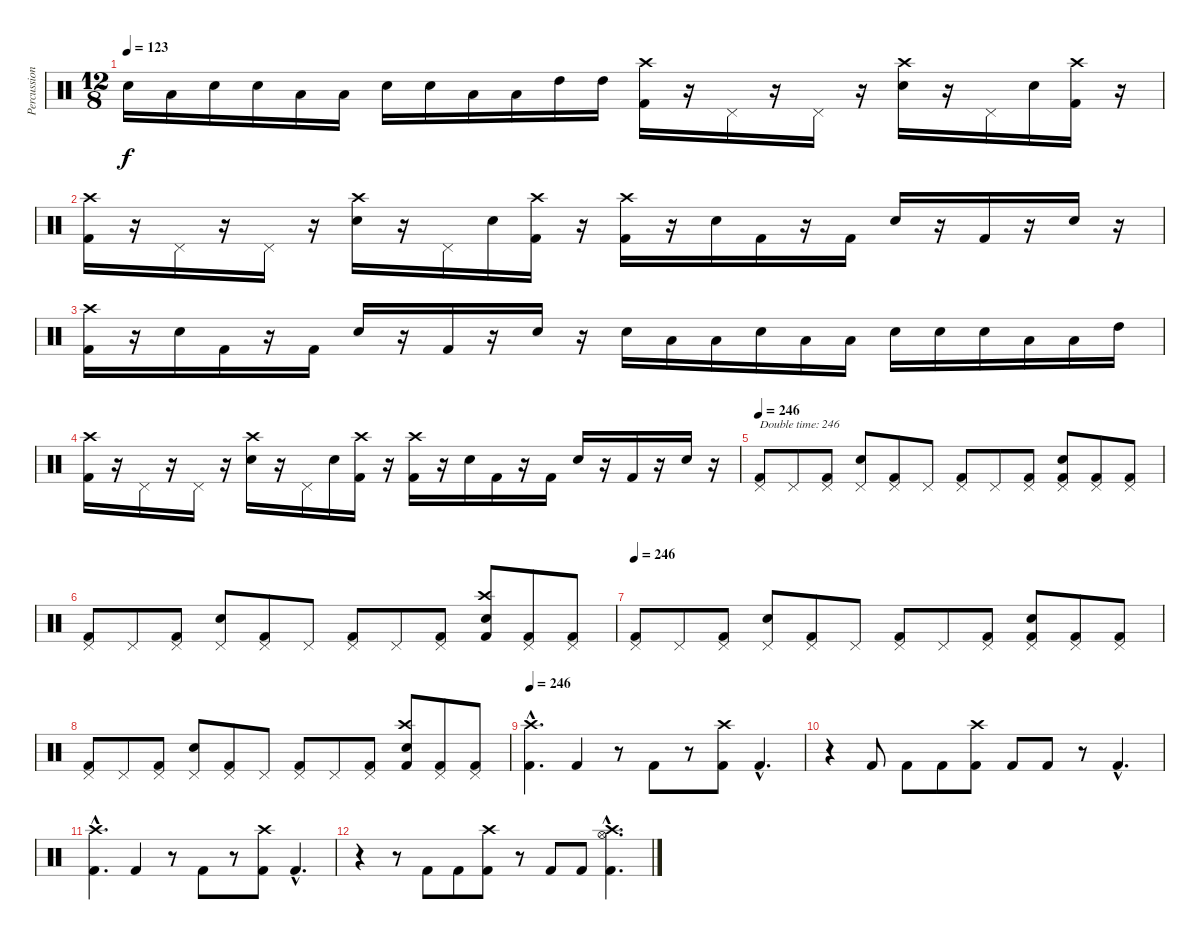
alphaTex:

\track ("Percussion" "Percussion") {instrument percussion}
\staff {score}
\articulation defaults
\ts (12 8)
\tempo 123
\clef neutral
\ks c "Snare (hit) 2".16{dy f} "Low Tom (hit)".16 "Snare (hit) 2".16 "Snare (hit) 2".16 "Low Tom (hit)".16 "Low Tom (hit)".16 "Snare (hit) 2".16 "Snare (hit) 2".16 "Low Tom (hit)".16 "Low Tom (hit)".16 "High Tom (hit)".16 "High Tom (hit)".16
("Crash high (hit)" "Kick (hit) 2").16 r.16 "Pedal Hi-Hat (hit)".16 r.16 "Pedal Hi-Hat (hit)".16 r.16 ("Snare (hit) 2" "Crash high (hit)").16 r.16 "Pedal Hi-Hat (hit)".16 "Snare (hit) 2".16 ("Crash high (hit)" "Kick (hit) 2").16 r.16 |
("Crash high (hit)" "Kick (hit) 2").16 r.16 "Pedal Hi-Hat (hit)".16 r.16 "Pedal Hi-Hat (hit)".16 r.16 ("Snare (hit) 2" "Crash high (hit)").16 r.16 "Pedal Hi-Hat (hit)".16 "Snare (hit) 2".16 ("Crash high (hit)" "Kick (hit) 2").16 r.16 ("Crash high (hit)" "Kick (hit) 2").16 r.16 "Snare (hit) 2".16 "Kick (hit) 2".16 r.16 "Kick (hit) 2".16 "Snare (hit) 2".16 r.16 "Kick (hit) 2".16 r.16 "Snare (hit) 2".16 r.16 |
("Crash high (hit)" "Kick (hit) 2").16 r.16 "Snare (hit) 2".16 "Kick (hit) 2".16 r.16 "Kick (hit) 2".16 "Snare (hit) 2".16 r.16 "Kick (hit) 2".16 r.16 "Snare (hit) 2".16 r.16 "Snare (hit) 2".16 "Low Tom (hit)".16 "Low Tom (hit)".16 "Snare (hit) 2".16 "Low Tom (hit)".16 "Low Tom (hit)".16 "Snare (hit) 2".16 "Snare (hit) 2".16 "Snare (hit) 2".16 "Low Tom (hit)".16 "Low Tom (hit)".16 "High Tom (hit)".16 |
("Crash high (hit)" "Kick (hit) 2").16 r.16 "Pedal Hi-Hat (hit)".16 r.16 "Pedal Hi-Hat (hit)".16 r.16 ("Snare (hit) 2" "Crash high (hit)").16 r.16 "Pedal Hi-Hat (hit)".16 "Snare (hit) 2".16 ("Crash high (hit)" "Kick (hit) 2").16 r.16 ("Crash high (hit)" "Kick (hit) 2").16 r.16 "Snare (hit) 2".16 "Kick (hit) 2".16 r.16 "Kick (hit) 2".16 "Snare (hit) 2".16 r.16 "Kick (hit) 2".16 r.16 "Snare (hit) 2".16 r.16 |
\tempo 246
("Pedal Hi-Hat (hit)" "Kick (hit) 2").8{txt "Double time: 246"} "Pedal Hi-Hat (hit)".8 ("Pedal Hi-Hat (hit)" "Kick (hit) 2").8 ("Snare (hit) 2" "Pedal Hi-Hat (hit)").8 ("Pedal Hi-Hat (hit)" "Kick (hit) 2").8 "Pedal Hi-Hat (hit)".8 ("Pedal Hi-Hat (hit)" "Kick (hit) 2").8 "Pedal Hi-Hat (hit)".8 ("Pedal Hi-Hat (hit)" "Kick (hit) 2").8 ("Snare (hit) 2" "Pedal Hi-Hat (hit)" "Kick (hit) 2").8 ("Pedal Hi-Hat (hit)" "Kick (hit) 2").8 ("Pedal Hi-Hat (hit)" "Kick (hit) 2").8 |
("Pedal Hi-Hat (hit)" "Kick (hit) 2").8 "Pedal Hi-Hat (hit)".8 ("Pedal Hi-Hat (hit)" "Kick (hit) 2").8 ("Snare (hit) 2" "Pedal Hi-Hat (hit)").8 ("Pedal Hi-Hat (hit)" "Kick (hit) 2").8 "Pedal Hi-Hat (hit)".8 ("Pedal Hi-Hat (hit)" "Kick (hit) 2").8 "Pedal Hi-Hat (hit)".8 ("Pedal Hi-Hat (hit)" "Kick (hit) 2").8 ("Snare (hit) 2" "Crash high (hit)" "Kick (hit) 2").8 ("Pedal Hi-Hat (hit)" "Kick (hit) 2").8 ("Pedal Hi-Hat (hit)" "Kick (hit) 2").8 |
\tempo 246
("Pedal Hi-Hat (hit)" "Kick (hit) 2").8 "Pedal Hi-Hat (hit)".8 ("Pedal Hi-Hat (hit)" "Kick (hit) 2").8 ("Snare (hit) 2" "Pedal Hi-Hat (hit)").8 ("Pedal Hi-Hat (hit)" "Kick (hit) 2").8 "Pedal Hi-Hat (hit)".8 ("Pedal Hi-Hat (hit)" "Kick (hit) 2").8 "Pedal Hi-Hat (hit)".8 ("Pedal Hi-Hat (hit)" "Kick (hit) 2").8 ("Snare (hit) 2" "Pedal Hi-Hat (hit)" "Kick (hit) 2").8 ("Pedal Hi-Hat (hit)" "Kick (hit) 2").8 ("Pedal Hi-Hat (hit)" "Kick (hit) 2").8 |
("Pedal Hi-Hat (hit)" "Kick (hit) 2").8 "Pedal Hi-Hat (hit)".8 ("Pedal Hi-Hat (hit)" "Kick (hit) 2").8 ("Snare (hit) 2" "Pedal Hi-Hat (hit)").8 ("Pedal Hi-Hat (hit)" "Kick (hit) 2").8 "Pedal Hi-Hat (hit)".8 ("Pedal Hi-Hat (hit)" "Kick (hit) 2").8 "Pedal Hi-Hat (hit)".8 ("Pedal Hi-Hat (hit)" "Kick (hit) 2").8 ("Snare (hit) 2" "Crash high (hit)" "Kick (hit) 2").8 ("Pedal Hi-Hat (hit)" "Kick (hit) 2").8 ("Pedal Hi-Hat (hit)" "Kick (hit) 2").8 |
\tempo 246
("Crash high (hit)"{hac} "Kick (hit) 2"{hac}).4{d} "Kick (hit) 2".4 r.8 "Kick (hit) 2".8 r.8 ("Crash high (hit)" "Kick (hit) 2").8 "Kick (hit) 2"{hac}.4{d} |
r.4 "Kick (hit) 2".8 "Kick (hit) 2".8 "Kick (hit) 2".8 ("Crash high (hit)" "Kick (hit) 2").8 "Kick (hit) 2".8 "Kick (hit) 2".8 r.8 "Kick (hit) 2"{hac}.4{d} |
("Crash high (hit)"{hac} "Kick (hit) 2"{hac}).4{d} "Kick (hit) 2".4 r.8 "Kick (hit) 2".8 r.8 ("Crash high (hit)" "Kick (hit) 2").8 "Kick (hit) 2"{hac}.4{d} |
r.4 r.8 "Kick (hit) 2".8 "Kick (hit) 2".8 ("Crash high (hit)" "Kick (hit) 2").8 r.8 "Kick (hit) 2".8 "Kick (hit) 2".8 ("Hi-Hat (open)"{hac} "Crash high (hit)"{hac} "Kick (hit) 2"{hac}).4{d}
